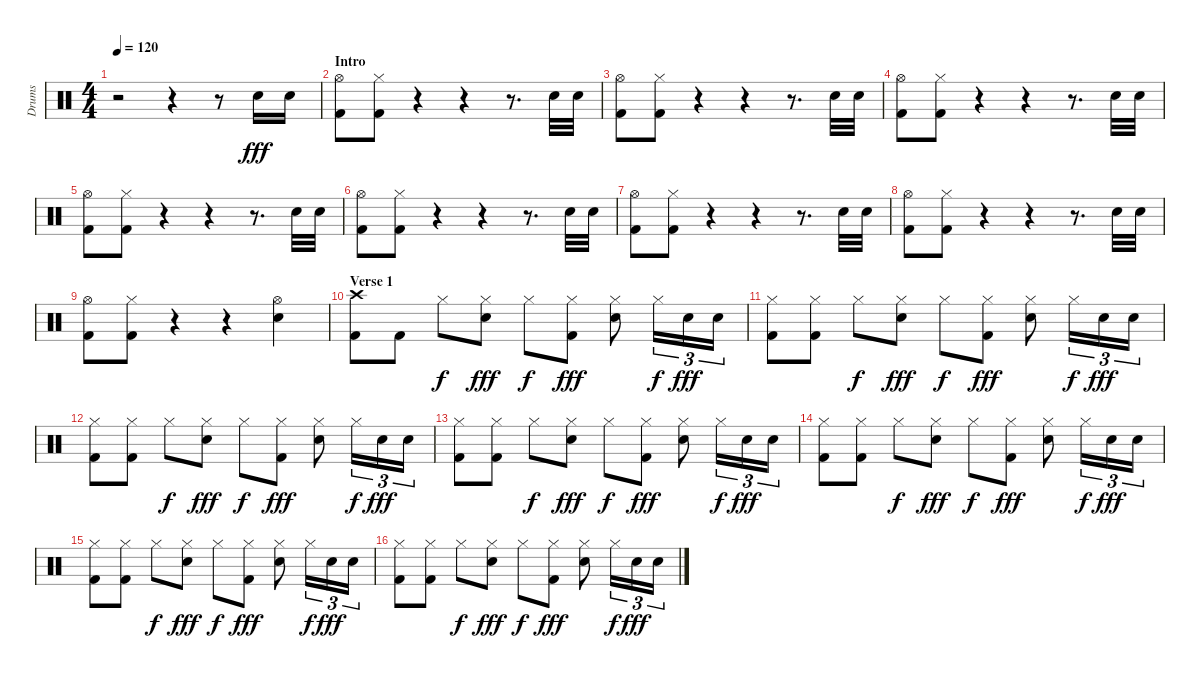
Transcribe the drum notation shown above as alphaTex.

\track ("Drums" "Drums") {instrument percussion}
\staff {score}
\articulation defaults
\ts (4 4)
\tempo 120
\clef neutral
\ks c
r.2{dy fff} r.4 r.8 "Snare (hit) 2".16 "Snare (hit) 2".16 |
\section ("" "Intro")
("Hi-Hat (open)" "Kick (hit) 2").8 ("Hi-Hat (closed)" "Kick (hit) 2").8 r.4 r.4 r.8{d} "Snare (hit) 2".32 "Snare (hit) 2".32 |
("Hi-Hat (open)" "Kick (hit) 2").8 ("Hi-Hat (closed)" "Kick (hit) 2").8 r.4 r.4 r.8{d} "Snare (hit) 2".32 "Snare (hit) 2".32 |
("Hi-Hat (open)" "Kick (hit) 2").8 ("Hi-Hat (closed)" "Kick (hit) 2").8 r.4 r.4 r.8{d} "Snare (hit) 2".32 "Snare (hit) 2".32 |
("Hi-Hat (open)" "Kick (hit) 2").8 ("Hi-Hat (closed)" "Kick (hit) 2").8 r.4 r.4 r.8{d} "Snare (hit) 2".32 "Snare (hit) 2".32 |
("Hi-Hat (open)" "Kick (hit) 2").8 ("Hi-Hat (closed)" "Kick (hit) 2").8 r.4 r.4 r.8{d} "Snare (hit) 2".32 "Snare (hit) 2".32 |
("Hi-Hat (open)" "Kick (hit) 2").8 ("Hi-Hat (closed)" "Kick (hit) 2").8 r.4 r.4 r.8{d} "Snare (hit) 2".32 "Snare (hit) 2".32 |
("Hi-Hat (open)" "Kick (hit) 2").8 ("Hi-Hat (closed)" "Kick (hit) 2").8 r.4 r.4 r.8{d} "Snare (hit) 2".32 "Snare (hit) 2".32 |
("Hi-Hat (open)" "Kick (hit) 2").8 ("Hi-Hat (closed)" "Kick (hit) 2").8 r.4 r.4 ("Hi-Hat (open)" "Snare (hit) 2").4 |
\section ("" "Verse 1")
("Crash high (hit)" "Kick (hit) 2").8 "Kick (hit) 2".8 "Hi-Hat (closed)".8{dy f} ("Hi-Hat (closed)" "Snare (hit) 2").8{dy fff} "Hi-Hat (closed)".8{dy f} ("Hi-Hat (closed)" "Kick (hit) 2").8{dy fff} ("Hi-Hat (closed)" "Snare (hit) 2").8 "Hi-Hat (closed)".16{tu (3 2) dy f} "Snare (hit) 2".16{tu (3 2) dy fff} "Snare (hit) 2".16{tu (3 2)} |
("Hi-Hat (closed)" "Kick (hit) 2").8 ("Hi-Hat (closed)" "Kick (hit) 2").8 "Hi-Hat (closed)".8{dy f} ("Hi-Hat (closed)" "Snare (hit) 2").8{dy fff} "Hi-Hat (closed)".8{dy f} ("Hi-Hat (closed)" "Kick (hit) 2").8{dy fff} ("Hi-Hat (closed)" "Snare (hit) 2").8 "Hi-Hat (closed)".16{tu (3 2) dy f} "Snare (hit) 2".16{tu (3 2) dy fff} "Snare (hit) 2".16{tu (3 2)} |
("Hi-Hat (closed)" "Kick (hit) 2").8 ("Hi-Hat (closed)" "Kick (hit) 2").8 "Hi-Hat (closed)".8{dy f} ("Hi-Hat (closed)" "Snare (hit) 2").8{dy fff} "Hi-Hat (closed)".8{dy f} ("Hi-Hat (closed)" "Kick (hit) 2").8{dy fff} ("Hi-Hat (closed)" "Snare (hit) 2").8 "Hi-Hat (closed)".16{tu (3 2) dy f} "Snare (hit) 2".16{tu (3 2) dy fff} "Snare (hit) 2".16{tu (3 2)} |
("Hi-Hat (closed)" "Kick (hit) 2").8 ("Hi-Hat (closed)" "Kick (hit) 2").8 "Hi-Hat (closed)".8{dy f} ("Hi-Hat (closed)" "Snare (hit) 2").8{dy fff} "Hi-Hat (closed)".8{dy f} ("Hi-Hat (closed)" "Kick (hit) 2").8{dy fff} ("Hi-Hat (closed)" "Snare (hit) 2").8 "Hi-Hat (closed)".16{tu (3 2) dy f} "Snare (hit) 2".16{tu (3 2) dy fff} "Snare (hit) 2".16{tu (3 2)} |
("Hi-Hat (closed)" "Kick (hit) 2").8 ("Hi-Hat (closed)" "Kick (hit) 2").8 "Hi-Hat (closed)".8{dy f} ("Hi-Hat (closed)" "Snare (hit) 2").8{dy fff} "Hi-Hat (closed)".8{dy f} ("Hi-Hat (closed)" "Kick (hit) 2").8{dy fff} ("Hi-Hat (closed)" "Snare (hit) 2").8 "Hi-Hat (closed)".16{tu (3 2) dy f} "Snare (hit) 2".16{tu (3 2) dy fff} "Snare (hit) 2".16{tu (3 2)} |
("Hi-Hat (closed)" "Kick (hit) 2").8 ("Hi-Hat (closed)" "Kick (hit) 2").8 "Hi-Hat (closed)".8{dy f} ("Hi-Hat (closed)" "Snare (hit) 2").8{dy fff} "Hi-Hat (closed)".8{dy f} ("Hi-Hat (closed)" "Kick (hit) 2").8{dy fff} ("Hi-Hat (closed)" "Snare (hit) 2").8 "Hi-Hat (closed)".16{tu (3 2) dy f} "Snare (hit) 2".16{tu (3 2) dy fff} "Snare (hit) 2".16{tu (3 2)} |
("Hi-Hat (closed)" "Kick (hit) 2").8 ("Hi-Hat (closed)" "Kick (hit) 2").8 "Hi-Hat (closed)".8{dy f} ("Hi-Hat (closed)" "Snare (hit) 2").8{dy fff} "Hi-Hat (closed)".8{dy f} ("Hi-Hat (closed)" "Kick (hit) 2").8{dy fff} ("Hi-Hat (closed)" "Snare (hit) 2").8 "Hi-Hat (closed)".16{tu (3 2) dy f} "Snare (hit) 2".16{tu (3 2) dy fff} "Snare (hit) 2".16{tu (3 2)}
